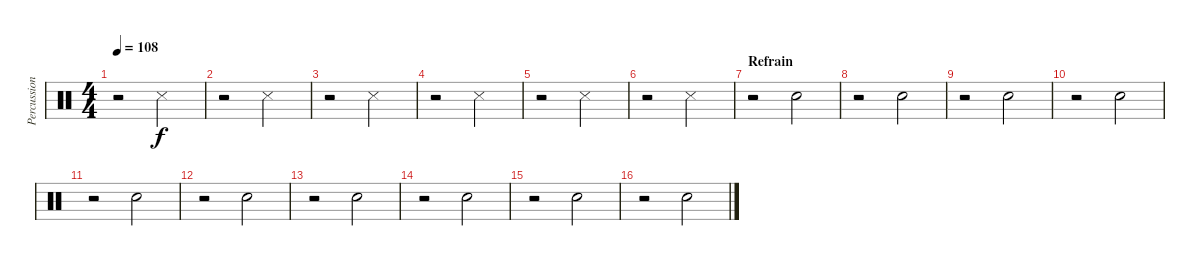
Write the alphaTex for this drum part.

\track ("Percussions (Porcaro J.)" "Percussion") {instrument percussion}
\staff {score}
\articulation defaults
\ts (4 4)
\tempo 108
\clef neutral
\ks c
r.2{dy f} "Snare (side stick) 3".2 |
r.2 "Snare (side stick) 3".2 |
r.2 "Snare (side stick) 3".2 |
r.2 "Snare (side stick) 3".2 |
r.2 "Snare (side stick) 3".2 |
r.2 "Snare (side stick) 3".2 |
\section ("" "Refrain")
r.2 "Snare (hit) 2".2 |
r.2 "Snare (hit) 2".2 |
r.2 "Snare (hit) 2".2 |
r.2 "Snare (hit) 2".2 |
r.2 "Snare (hit) 2".2 |
r.2 "Snare (hit) 2".2 |
r.2 "Snare (hit) 2".2 |
r.2 "Snare (hit) 2".2 |
r.2 "Snare (hit) 2".2 |
r.2 "Snare (hit) 2".2
